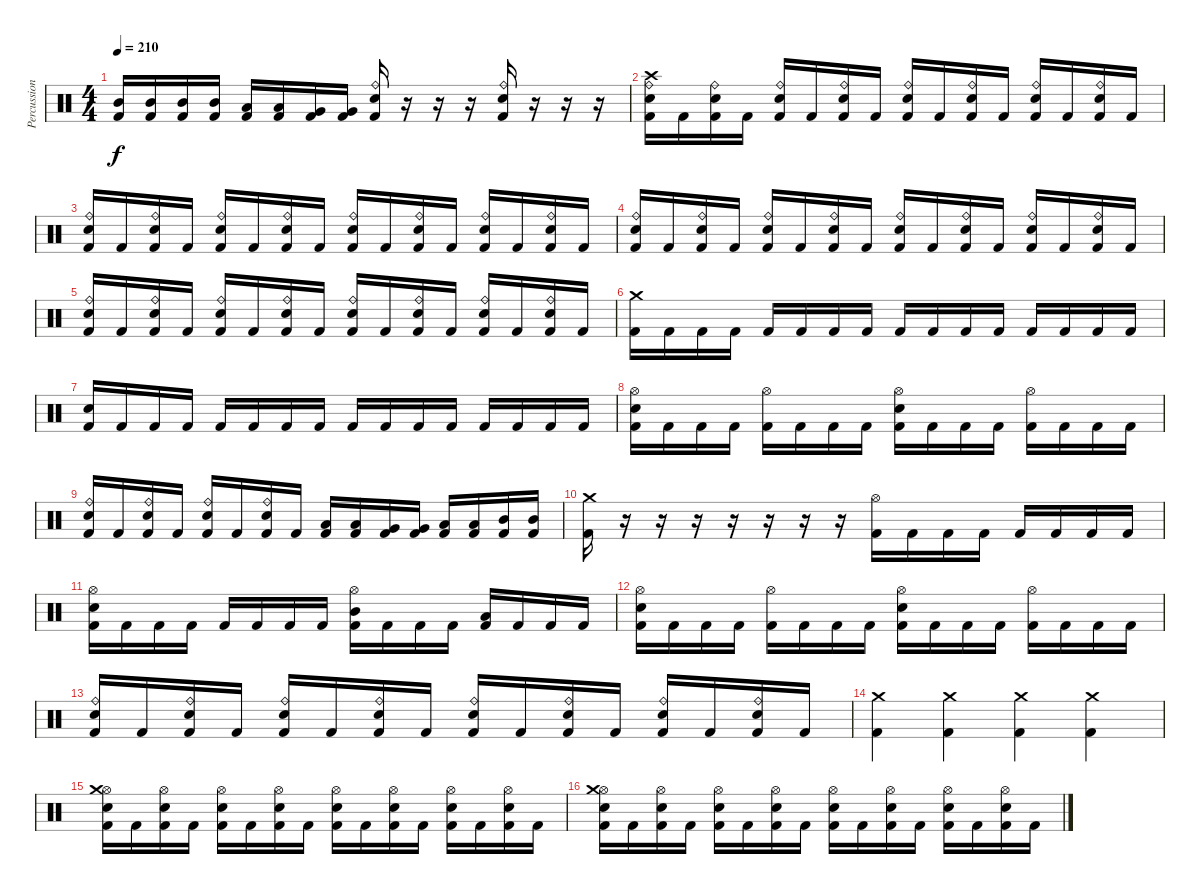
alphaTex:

\track ("Percussion" "Percussion") {instrument percussion}
\staff {score}
\articulation defaults
\ts (4 4)
\tempo 210
\clef neutral
\ks c
("Mid Tom (hit)" "Kick (hit) 2").16{dy f} ("Mid Tom (hit)" "Kick (hit) 2").16 ("Mid Tom (hit)" "Kick (hit) 2").16 ("Mid Tom (hit)" "Kick (hit) 2").16 ("Low Tom (hit)" "Kick (hit) 2").16 ("Low Tom (hit)" "Kick (hit) 2").16 ("Very Low Tom (hit)" "Kick (hit) 2").16 ("Very Low Tom (hit)" "Kick (hit) 2").16 ("Ride (bell)" "Snare (hit) 2" "Kick (hit) 2").16 r.16 r.16 r.16 ("Ride (bell)" "Snare (hit) 2" "Kick (hit) 2").16 r.16 r.16 r.16 |
("Crash high (hit)" "Ride (bell)" "Snare (hit) 2" "Kick (hit) 2").16 "Kick (hit) 2".16 ("Ride (bell)" "Snare (hit) 2" "Kick (hit) 2").16 "Kick (hit) 2".16 ("Ride (bell)" "Snare (hit) 2" "Kick (hit) 2").16 "Kick (hit) 2".16 ("Ride (bell)" "Snare (hit) 2" "Kick (hit) 2").16 "Kick (hit) 2".16 ("Ride (bell)" "Snare (hit) 2" "Kick (hit) 2").16 "Kick (hit) 2".16 ("Ride (bell)" "Snare (hit) 2" "Kick (hit) 2").16 "Kick (hit) 2".16 ("Ride (bell)" "Snare (hit) 2" "Kick (hit) 2").16 "Kick (hit) 2".16 ("Ride (bell)" "Snare (hit) 2" "Kick (hit) 2").16 "Kick (hit) 2".16 |
("Ride (bell)" "Snare (hit) 2" "Kick (hit) 2").16 "Kick (hit) 2".16 ("Ride (bell)" "Snare (hit) 2" "Kick (hit) 2").16 "Kick (hit) 2".16 ("Ride (bell)" "Snare (hit) 2" "Kick (hit) 2").16 "Kick (hit) 2".16 ("Ride (bell)" "Snare (hit) 2" "Kick (hit) 2").16 "Kick (hit) 2".16 ("Ride (bell)" "Snare (hit) 2" "Kick (hit) 2").16 "Kick (hit) 2".16 ("Ride (bell)" "Snare (hit) 2" "Kick (hit) 2").16 "Kick (hit) 2".16 ("Ride (bell)" "Snare (hit) 2" "Kick (hit) 2").16 "Kick (hit) 2".16 ("Ride (bell)" "Snare (hit) 2" "Kick (hit) 2").16 "Kick (hit) 2".16 |
("Ride (bell)" "Snare (hit) 2" "Kick (hit) 2").16 "Kick (hit) 2".16 ("Ride (bell)" "Snare (hit) 2" "Kick (hit) 2").16 "Kick (hit) 2".16 ("Ride (bell)" "Snare (hit) 2" "Kick (hit) 2").16 "Kick (hit) 2".16 ("Ride (bell)" "Snare (hit) 2" "Kick (hit) 2").16 "Kick (hit) 2".16 ("Ride (bell)" "Snare (hit) 2" "Kick (hit) 2").16 "Kick (hit) 2".16 ("Ride (bell)" "Snare (hit) 2" "Kick (hit) 2").16 "Kick (hit) 2".16 ("Ride (bell)" "Snare (hit) 2" "Kick (hit) 2").16 "Kick (hit) 2".16 ("Ride (bell)" "Snare (hit) 2" "Kick (hit) 2").16 "Kick (hit) 2".16 |
("Ride (bell)" "Snare (hit) 2" "Kick (hit) 2").16 "Kick (hit) 2".16 ("Ride (bell)" "Snare (hit) 2" "Kick (hit) 2").16 "Kick (hit) 2".16 ("Ride (bell)" "Snare (hit) 2" "Kick (hit) 2").16 "Kick (hit) 2".16 ("Ride (bell)" "Snare (hit) 2" "Kick (hit) 2").16 "Kick (hit) 2".16 ("Ride (bell)" "Snare (hit) 2" "Kick (hit) 2").16 "Kick (hit) 2".16 ("Ride (bell)" "Snare (hit) 2" "Kick (hit) 2").16 "Kick (hit) 2".16 ("Ride (bell)" "Snare (hit) 2" "Kick (hit) 2").16 "Kick (hit) 2".16 ("Ride (bell)" "Snare (hit) 2" "Kick (hit) 2").16 "Kick (hit) 2".16 |
("Crash medium (hit)" "Kick (hit) 2").16 "Kick (hit) 2".16 "Kick (hit) 2".16 "Kick (hit) 2".16 "Kick (hit) 2".16 "Kick (hit) 2".16 "Kick (hit) 2".16 "Kick (hit) 2".16 "Kick (hit) 2".16 "Kick (hit) 2".16 "Kick (hit) 2".16 "Kick (hit) 2".16 "Kick (hit) 2".16 "Kick (hit) 2".16 "Kick (hit) 2".16 "Kick (hit) 2".16 |
("Snare (hit) 2" "Kick (hit) 2").16 "Kick (hit) 2".16 "Kick (hit) 2".16 "Kick (hit) 2".16 "Kick (hit) 2".16 "Kick (hit) 2".16 "Kick (hit) 2".16 "Kick (hit) 2".16 "Kick (hit) 2".16 "Kick (hit) 2".16 "Kick (hit) 2".16 "Kick (hit) 2".16 "Kick (hit) 2".16 "Kick (hit) 2".16 "Kick (hit) 2".16 "Kick (hit) 2".16 |
("Hi-Hat (open)" "Snare (hit) 2" "Kick (hit) 2").16 "Kick (hit) 2".16 "Kick (hit) 2".16 "Kick (hit) 2".16 ("Hi-Hat (open)" "Kick (hit) 2").16 "Kick (hit) 2".16 "Kick (hit) 2".16 "Kick (hit) 2".16 ("Hi-Hat (open)" "Snare (hit) 2" "Kick (hit) 2").16 "Kick (hit) 2".16 "Kick (hit) 2".16 "Kick (hit) 2".16 ("Hi-Hat (open)" "Kick (hit) 2").16 "Kick (hit) 2".16 "Kick (hit) 2".16 "Kick (hit) 2".16 |
("Ride (bell)" "Snare (hit) 2" "Kick (hit) 2").16 "Kick (hit) 2".16 ("Ride (bell)" "Snare (hit) 2" "Kick (hit) 2").16 "Kick (hit) 2".16 ("Ride (bell)" "Snare (hit) 2" "Kick (hit) 2").16 "Kick (hit) 2".16 ("Ride (bell)" "Snare (hit) 2" "Kick (hit) 2").16 "Kick (hit) 2".16 ("Low Floor Tom (hit)" "Kick (hit) 2").16 ("Low Floor Tom (hit)" "Kick (hit) 2").16 ("Very Low Tom (hit)" "Kick (hit) 2").16 ("Very Low Tom (hit)" "Kick (hit) 2").16 ("Low Tom (hit)" "Kick (hit) 2").16 ("Low Tom (hit)" "Kick (hit) 2").16 ("Mid Tom (hit)" "Kick (hit) 2").16 ("Mid Tom (hit)" "Kick (hit) 2").16 |
("Crash medium (hit)" "Kick (hit) 2").16 r.16 r.16 r.16 r.16 r.16 r.16 r.16 ("Hi-Hat (open)" "Kick (hit) 2").16 "Kick (hit) 2".16 "Kick (hit) 2".16 "Kick (hit) 2".16 "Kick (hit) 2".16 "Kick (hit) 2".16 "Kick (hit) 2".16 "Kick (hit) 2".16 |
("Hi-Hat (open)" "Snare (hit) 2" "Kick (hit) 2").16 "Kick (hit) 2".16 "Kick (hit) 2".16 "Kick (hit) 2".16 "Kick (hit) 2".16 "Kick (hit) 2".16 "Kick (hit) 2".16 "Kick (hit) 2".16 ("Hi-Hat (open)" "Mid Tom (hit)" "Kick (hit) 2").16 "Kick (hit) 2".16 "Kick (hit) 2".16 "Kick (hit) 2".16 ("Low Tom (hit)" "Kick (hit) 2").16 "Kick (hit) 2".16 "Kick (hit) 2".16 "Kick (hit) 2".16 |
("Hi-Hat (open)" "Snare (hit) 2" "Kick (hit) 2").16 "Kick (hit) 2".16 "Kick (hit) 2".16 "Kick (hit) 2".16 ("Hi-Hat (open)" "Kick (hit) 2").16 "Kick (hit) 2".16 "Kick (hit) 2".16 "Kick (hit) 2".16 ("Hi-Hat (open)" "Snare (hit) 2" "Kick (hit) 2").16 "Kick (hit) 2".16 "Kick (hit) 2".16 "Kick (hit) 2".16 ("Hi-Hat (open)" "Kick (hit) 2").16 "Kick (hit) 2".16 "Kick (hit) 2".16 "Kick (hit) 2".16 |
("Ride (bell)" "Snare (hit) 2" "Kick (hit) 2").16 "Kick (hit) 2".16 ("Ride (bell)" "Snare (hit) 2" "Kick (hit) 2").16 "Kick (hit) 2".16 ("Ride (bell)" "Snare (hit) 2" "Kick (hit) 2").16 "Kick (hit) 2".16 ("Ride (bell)" "Snare (hit) 2" "Kick (hit) 2").16 "Kick (hit) 2".16 ("Ride (bell)" "Snare (hit) 2" "Kick (hit) 2").16 "Kick (hit) 2".16 ("Ride (bell)" "Snare (hit) 2" "Kick (hit) 2").16 "Kick (hit) 2".16 ("Ride (bell)" "Snare (hit) 2" "Kick (hit) 2").16 "Kick (hit) 2".16 ("Ride (bell)" "Snare (hit) 2" "Kick (hit) 2").16 "Kick (hit) 2".16 |
("Crash medium (hit)" "Kick (hit) 2").4 ("Crash medium (hit)" "Kick (hit) 2").4 ("Crash medium (hit)" "Kick (hit) 2").4 ("Crash medium (hit)" "Kick (hit) 2").4 |
("Hi-Hat (open)" "Crash medium (hit)" "Snare (hit) 2" "Kick (hit) 2").16 "Kick (hit) 2".16 ("Hi-Hat (open)" "Snare (hit) 2" "Kick (hit) 2").16 "Kick (hit) 2".16 ("Hi-Hat (open)" "Snare (hit) 2" "Kick (hit) 2").16 "Kick (hit) 2".16 ("Hi-Hat (open)" "Snare (hit) 2" "Kick (hit) 2").16 "Kick (hit) 2".16 ("Hi-Hat (open)" "Snare (hit) 2" "Kick (hit) 2").16 "Kick (hit) 2".16 ("Hi-Hat (open)" "Snare (hit) 2" "Kick (hit) 2").16 "Kick (hit) 2".16 ("Hi-Hat (open)" "Snare (hit) 2" "Kick (hit) 2").16 "Kick (hit) 2".16 ("Hi-Hat (open)" "Snare (hit) 2" "Kick (hit) 2").16 "Kick (hit) 2".16 |
("Hi-Hat (open)" "Crash medium (hit)" "Snare (hit) 2" "Kick (hit) 2").16 "Kick (hit) 2".16 ("Hi-Hat (open)" "Snare (hit) 2" "Kick (hit) 2").16 "Kick (hit) 2".16 ("Hi-Hat (open)" "Snare (hit) 2" "Kick (hit) 2").16 "Kick (hit) 2".16 ("Hi-Hat (open)" "Snare (hit) 2" "Kick (hit) 2").16 "Kick (hit) 2".16 ("Hi-Hat (open)" "Snare (hit) 2" "Kick (hit) 2").16 "Kick (hit) 2".16 ("Hi-Hat (open)" "Snare (hit) 2" "Kick (hit) 2").16 "Kick (hit) 2".16 ("Hi-Hat (open)" "Snare (hit) 2" "Kick (hit) 2").16 "Kick (hit) 2".16 ("Hi-Hat (open)" "Snare (hit) 2" "Kick (hit) 2").16 "Kick (hit) 2".16
